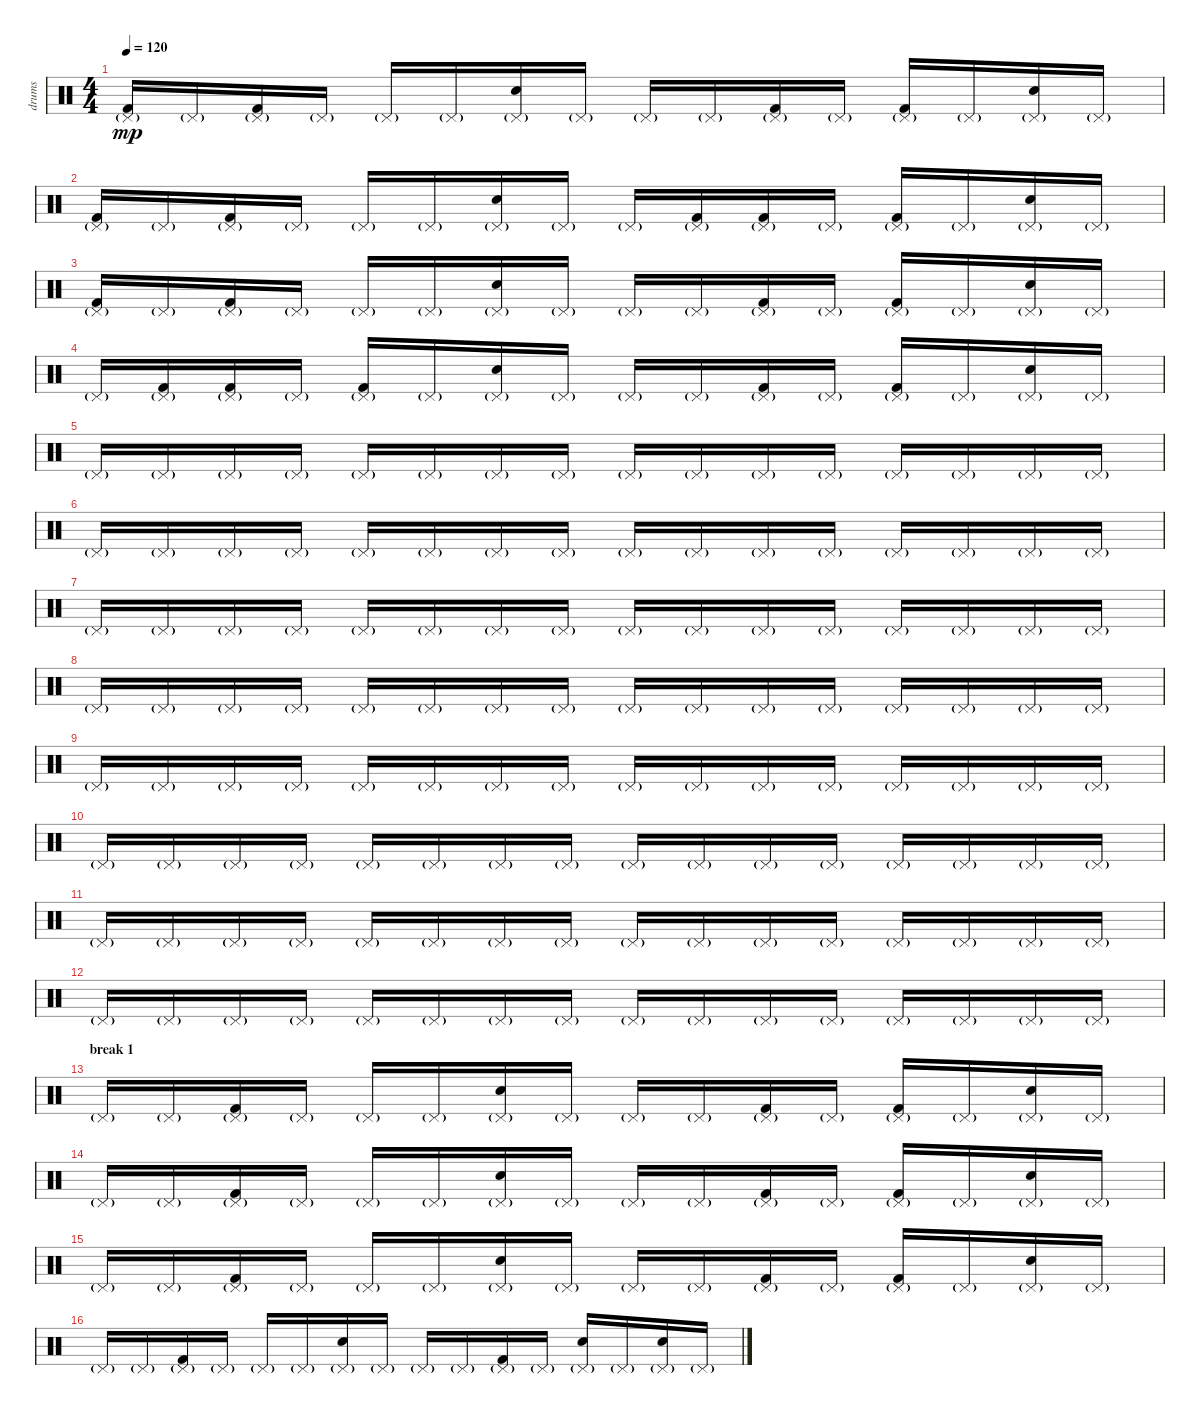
\track ("drums" "drums") {instrument percussion}
\staff {score}
\articulation defaults
\ts (4 4)
\tempo 120
\clef neutral
\ks c
("Kick (hit) 2" "Pedal Hi-Hat (hit)"{g}).16{dy mp} "Pedal Hi-Hat (hit)"{g}.16 ("Kick (hit) 2" "Pedal Hi-Hat (hit)"{g}).16 "Pedal Hi-Hat (hit)"{g}.16 "Pedal Hi-Hat (hit)"{g}.16 "Pedal Hi-Hat (hit)"{g}.16 ("Hand Clap (hit)" "Pedal Hi-Hat (hit)"{g}).16 "Pedal Hi-Hat (hit)"{g}.16 "Pedal Hi-Hat (hit)"{g}.16 "Pedal Hi-Hat (hit)"{g}.16 ("Kick (hit) 2" "Pedal Hi-Hat (hit)"{g}).16 "Pedal Hi-Hat (hit)"{g}.16 ("Kick (hit) 2" "Pedal Hi-Hat (hit)"{g}).16 "Pedal Hi-Hat (hit)"{g}.16 ("Hand Clap (hit)" "Pedal Hi-Hat (hit)"{g}).16 "Pedal Hi-Hat (hit)"{g}.16 |
("Kick (hit) 2" "Pedal Hi-Hat (hit)"{g}).16 "Pedal Hi-Hat (hit)"{g}.16 ("Kick (hit) 2" "Pedal Hi-Hat (hit)"{g}).16 "Pedal Hi-Hat (hit)"{g}.16 "Pedal Hi-Hat (hit)"{g}.16 "Pedal Hi-Hat (hit)"{g}.16 ("Hand Clap (hit)" "Pedal Hi-Hat (hit)"{g}).16 "Pedal Hi-Hat (hit)"{g}.16 "Pedal Hi-Hat (hit)"{g}.16 ("Kick (hit) 2" "Pedal Hi-Hat (hit)"{g}).16 ("Kick (hit) 2" "Pedal Hi-Hat (hit)"{g}).16 "Pedal Hi-Hat (hit)"{g}.16 ("Kick (hit) 2" "Pedal Hi-Hat (hit)"{g}).16 "Pedal Hi-Hat (hit)"{g}.16 ("Hand Clap (hit)" "Pedal Hi-Hat (hit)"{g}).16 "Pedal Hi-Hat (hit)"{g}.16 |
("Kick (hit) 2" "Pedal Hi-Hat (hit)"{g}).16 "Pedal Hi-Hat (hit)"{g}.16 ("Kick (hit) 2" "Pedal Hi-Hat (hit)"{g}).16 "Pedal Hi-Hat (hit)"{g}.16 "Pedal Hi-Hat (hit)"{g}.16 "Pedal Hi-Hat (hit)"{g}.16 ("Hand Clap (hit)" "Pedal Hi-Hat (hit)"{g}).16 "Pedal Hi-Hat (hit)"{g}.16 "Pedal Hi-Hat (hit)"{g}.16 "Pedal Hi-Hat (hit)"{g}.16 ("Kick (hit) 2" "Pedal Hi-Hat (hit)"{g}).16 "Pedal Hi-Hat (hit)"{g}.16 ("Kick (hit) 2" "Pedal Hi-Hat (hit)"{g}).16 "Pedal Hi-Hat (hit)"{g}.16 ("Hand Clap (hit)" "Pedal Hi-Hat (hit)"{g}).16 "Pedal Hi-Hat (hit)"{g}.16 |
"Pedal Hi-Hat (hit)"{g}.16 ("Kick (hit) 2" "Pedal Hi-Hat (hit)"{g}).16 ("Kick (hit) 2" "Pedal Hi-Hat (hit)"{g}).16 "Pedal Hi-Hat (hit)"{g}.16 ("Kick (hit) 2" "Pedal Hi-Hat (hit)"{g}).16 "Pedal Hi-Hat (hit)"{g}.16 ("Hand Clap (hit)" "Pedal Hi-Hat (hit)"{g}).16 "Pedal Hi-Hat (hit)"{g}.16 "Pedal Hi-Hat (hit)"{g}.16 "Pedal Hi-Hat (hit)"{g}.16 ("Kick (hit) 2" "Pedal Hi-Hat (hit)"{g}).16 "Pedal Hi-Hat (hit)"{g}.16 ("Kick (hit) 2" "Pedal Hi-Hat (hit)"{g}).16 "Pedal Hi-Hat (hit)"{g}.16 ("Hand Clap (hit)" "Pedal Hi-Hat (hit)"{g}).16 "Pedal Hi-Hat (hit)"{g}.16 |
"Pedal Hi-Hat (hit)"{g}.16 "Pedal Hi-Hat (hit)"{g}.16 "Pedal Hi-Hat (hit)"{g}.16 "Pedal Hi-Hat (hit)"{g}.16 "Pedal Hi-Hat (hit)"{g}.16 "Pedal Hi-Hat (hit)"{g}.16 "Pedal Hi-Hat (hit)"{g}.16 "Pedal Hi-Hat (hit)"{g}.16 "Pedal Hi-Hat (hit)"{g}.16 "Pedal Hi-Hat (hit)"{g}.16 "Pedal Hi-Hat (hit)"{g}.16 "Pedal Hi-Hat (hit)"{g}.16 "Pedal Hi-Hat (hit)"{g}.16 "Pedal Hi-Hat (hit)"{g}.16 "Pedal Hi-Hat (hit)"{g}.16 "Pedal Hi-Hat (hit)"{g}.16 |
"Pedal Hi-Hat (hit)"{g}.16 "Pedal Hi-Hat (hit)"{g}.16 "Pedal Hi-Hat (hit)"{g}.16 "Pedal Hi-Hat (hit)"{g}.16 "Pedal Hi-Hat (hit)"{g}.16 "Pedal Hi-Hat (hit)"{g}.16 "Pedal Hi-Hat (hit)"{g}.16 "Pedal Hi-Hat (hit)"{g}.16 "Pedal Hi-Hat (hit)"{g}.16 "Pedal Hi-Hat (hit)"{g}.16 "Pedal Hi-Hat (hit)"{g}.16 "Pedal Hi-Hat (hit)"{g}.16 "Pedal Hi-Hat (hit)"{g}.16 "Pedal Hi-Hat (hit)"{g}.16 "Pedal Hi-Hat (hit)"{g}.16 "Pedal Hi-Hat (hit)"{g}.16 |
"Pedal Hi-Hat (hit)"{g}.16 "Pedal Hi-Hat (hit)"{g}.16 "Pedal Hi-Hat (hit)"{g}.16 "Pedal Hi-Hat (hit)"{g}.16 "Pedal Hi-Hat (hit)"{g}.16 "Pedal Hi-Hat (hit)"{g}.16 "Pedal Hi-Hat (hit)"{g}.16 "Pedal Hi-Hat (hit)"{g}.16 "Pedal Hi-Hat (hit)"{g}.16 "Pedal Hi-Hat (hit)"{g}.16 "Pedal Hi-Hat (hit)"{g}.16 "Pedal Hi-Hat (hit)"{g}.16 "Pedal Hi-Hat (hit)"{g}.16 "Pedal Hi-Hat (hit)"{g}.16 "Pedal Hi-Hat (hit)"{g}.16 "Pedal Hi-Hat (hit)"{g}.16 |
"Pedal Hi-Hat (hit)"{g}.16 "Pedal Hi-Hat (hit)"{g}.16 "Pedal Hi-Hat (hit)"{g}.16 "Pedal Hi-Hat (hit)"{g}.16 "Pedal Hi-Hat (hit)"{g}.16 "Pedal Hi-Hat (hit)"{g}.16 "Pedal Hi-Hat (hit)"{g}.16 "Pedal Hi-Hat (hit)"{g}.16 "Pedal Hi-Hat (hit)"{g}.16 "Pedal Hi-Hat (hit)"{g}.16 "Pedal Hi-Hat (hit)"{g}.16 "Pedal Hi-Hat (hit)"{g}.16 "Pedal Hi-Hat (hit)"{g}.16 "Pedal Hi-Hat (hit)"{g}.16 "Pedal Hi-Hat (hit)"{g}.16 "Pedal Hi-Hat (hit)"{g}.16 |
"Pedal Hi-Hat (hit)"{g}.16 "Pedal Hi-Hat (hit)"{g}.16 "Pedal Hi-Hat (hit)"{g}.16 "Pedal Hi-Hat (hit)"{g}.16 "Pedal Hi-Hat (hit)"{g}.16 "Pedal Hi-Hat (hit)"{g}.16 "Pedal Hi-Hat (hit)"{g}.16 "Pedal Hi-Hat (hit)"{g}.16 "Pedal Hi-Hat (hit)"{g}.16 "Pedal Hi-Hat (hit)"{g}.16 "Pedal Hi-Hat (hit)"{g}.16 "Pedal Hi-Hat (hit)"{g}.16 "Pedal Hi-Hat (hit)"{g}.16 "Pedal Hi-Hat (hit)"{g}.16 "Pedal Hi-Hat (hit)"{g}.16 "Pedal Hi-Hat (hit)"{g}.16 |
"Pedal Hi-Hat (hit)"{g}.16 "Pedal Hi-Hat (hit)"{g}.16 "Pedal Hi-Hat (hit)"{g}.16 "Pedal Hi-Hat (hit)"{g}.16 "Pedal Hi-Hat (hit)"{g}.16 "Pedal Hi-Hat (hit)"{g}.16 "Pedal Hi-Hat (hit)"{g}.16 "Pedal Hi-Hat (hit)"{g}.16 "Pedal Hi-Hat (hit)"{g}.16 "Pedal Hi-Hat (hit)"{g}.16 "Pedal Hi-Hat (hit)"{g}.16 "Pedal Hi-Hat (hit)"{g}.16 "Pedal Hi-Hat (hit)"{g}.16 "Pedal Hi-Hat (hit)"{g}.16 "Pedal Hi-Hat (hit)"{g}.16 "Pedal Hi-Hat (hit)"{g}.16 |
"Pedal Hi-Hat (hit)"{g}.16 "Pedal Hi-Hat (hit)"{g}.16 "Pedal Hi-Hat (hit)"{g}.16 "Pedal Hi-Hat (hit)"{g}.16 "Pedal Hi-Hat (hit)"{g}.16 "Pedal Hi-Hat (hit)"{g}.16 "Pedal Hi-Hat (hit)"{g}.16 "Pedal Hi-Hat (hit)"{g}.16 "Pedal Hi-Hat (hit)"{g}.16 "Pedal Hi-Hat (hit)"{g}.16 "Pedal Hi-Hat (hit)"{g}.16 "Pedal Hi-Hat (hit)"{g}.16 "Pedal Hi-Hat (hit)"{g}.16 "Pedal Hi-Hat (hit)"{g}.16 "Pedal Hi-Hat (hit)"{g}.16 "Pedal Hi-Hat (hit)"{g}.16 |
"Pedal Hi-Hat (hit)"{g}.16 "Pedal Hi-Hat (hit)"{g}.16 "Pedal Hi-Hat (hit)"{g}.16 "Pedal Hi-Hat (hit)"{g}.16 "Pedal Hi-Hat (hit)"{g}.16 "Pedal Hi-Hat (hit)"{g}.16 "Pedal Hi-Hat (hit)"{g}.16 "Pedal Hi-Hat (hit)"{g}.16 "Pedal Hi-Hat (hit)"{g}.16 "Pedal Hi-Hat (hit)"{g}.16 "Pedal Hi-Hat (hit)"{g}.16 "Pedal Hi-Hat (hit)"{g}.16 "Pedal Hi-Hat (hit)"{g}.16 "Pedal Hi-Hat (hit)"{g}.16 "Pedal Hi-Hat (hit)"{g}.16 "Pedal Hi-Hat (hit)"{g}.16 |
\section ("" "break 1")
"Pedal Hi-Hat (hit)"{g}.16 "Pedal Hi-Hat (hit)"{g}.16 ("Kick (hit) 2" "Pedal Hi-Hat (hit)"{g}).16 "Pedal Hi-Hat (hit)"{g}.16 "Pedal Hi-Hat (hit)"{g}.16 "Pedal Hi-Hat (hit)"{g}.16 ("Snare (hit) 2" "Pedal Hi-Hat (hit)"{g}).16 "Pedal Hi-Hat (hit)"{g}.16 "Pedal Hi-Hat (hit)"{g}.16 "Pedal Hi-Hat (hit)"{g}.16 ("Kick (hit) 2" "Pedal Hi-Hat (hit)"{g}).16 "Pedal Hi-Hat (hit)"{g}.16 ("Kick (hit) 2" "Pedal Hi-Hat (hit)"{g}).16 "Pedal Hi-Hat (hit)"{g}.16 ("Snare (hit) 2" "Pedal Hi-Hat (hit)"{g}).16 "Pedal Hi-Hat (hit)"{g}.16 |
"Pedal Hi-Hat (hit)"{g}.16 "Pedal Hi-Hat (hit)"{g}.16 ("Kick (hit) 2" "Pedal Hi-Hat (hit)"{g}).16 "Pedal Hi-Hat (hit)"{g}.16 "Pedal Hi-Hat (hit)"{g}.16 "Pedal Hi-Hat (hit)"{g}.16 ("Snare (hit) 2" "Pedal Hi-Hat (hit)"{g}).16 "Pedal Hi-Hat (hit)"{g}.16 "Pedal Hi-Hat (hit)"{g}.16 "Pedal Hi-Hat (hit)"{g}.16 ("Kick (hit) 2" "Pedal Hi-Hat (hit)"{g}).16 "Pedal Hi-Hat (hit)"{g}.16 ("Kick (hit) 2" "Pedal Hi-Hat (hit)"{g}).16 "Pedal Hi-Hat (hit)"{g}.16 ("Snare (hit) 2" "Pedal Hi-Hat (hit)"{g}).16 "Pedal Hi-Hat (hit)"{g}.16 |
"Pedal Hi-Hat (hit)"{g}.16 "Pedal Hi-Hat (hit)"{g}.16 ("Kick (hit) 2" "Pedal Hi-Hat (hit)"{g}).16 "Pedal Hi-Hat (hit)"{g}.16 "Pedal Hi-Hat (hit)"{g}.16 "Pedal Hi-Hat (hit)"{g}.16 ("Snare (hit) 2" "Pedal Hi-Hat (hit)"{g}).16 "Pedal Hi-Hat (hit)"{g}.16 "Pedal Hi-Hat (hit)"{g}.16 "Pedal Hi-Hat (hit)"{g}.16 ("Kick (hit) 2" "Pedal Hi-Hat (hit)"{g}).16 "Pedal Hi-Hat (hit)"{g}.16 ("Kick (hit) 2" "Pedal Hi-Hat (hit)"{g}).16 "Pedal Hi-Hat (hit)"{g}.16 ("Snare (hit) 2" "Pedal Hi-Hat (hit)"{g}).16 "Pedal Hi-Hat (hit)"{g}.16 |
"Pedal Hi-Hat (hit)"{g}.16 "Pedal Hi-Hat (hit)"{g}.16 ("Kick (hit) 2" "Pedal Hi-Hat (hit)"{g}).16 "Pedal Hi-Hat (hit)"{g}.16 "Pedal Hi-Hat (hit)"{g}.16 "Pedal Hi-Hat (hit)"{g}.16 ("Snare (hit) 2" "Pedal Hi-Hat (hit)"{g}).16 "Pedal Hi-Hat (hit)"{g}.16 "Pedal Hi-Hat (hit)"{g}.16 "Pedal Hi-Hat (hit)"{g}.16 ("Kick (hit) 2" "Pedal Hi-Hat (hit)"{g}).16 "Pedal Hi-Hat (hit)"{g}.16 ("Snare (hit) 2" "Pedal Hi-Hat (hit)"{g}).16 "Pedal Hi-Hat (hit)"{g}.16 ("Snare (hit) 2" "Pedal Hi-Hat (hit)"{g}).16 "Pedal Hi-Hat (hit)"{g}.16
